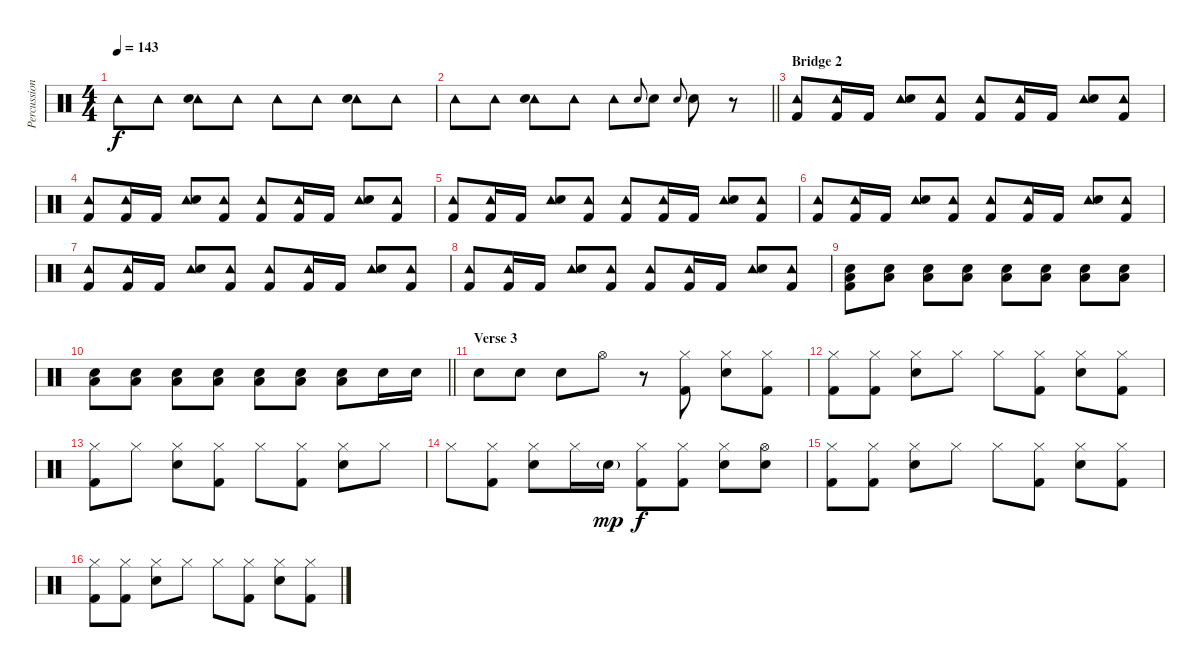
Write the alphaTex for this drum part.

\track ("Percussion" "Percussion") {instrument percussion}
\staff {score}
\articulation defaults
\ts (4 4)
\tempo 143
\clef neutral
\ks c "Tambourine (hit)".8{dy f} "Tambourine (hit)".8
("Tambourine (hit)" "Snare (hit) 2").8 "Tambourine (hit)".8 "Tambourine (hit)".8 "Tambourine (hit)".8 ("Tambourine (hit)" "Snare (hit) 2").8 "Tambourine (hit)".8 |
\barLineRight lightlight "Tambourine (hit)".8 "Tambourine (hit)".8
("Tambourine (hit)" "Snare (hit) 2").8 "Tambourine (hit)".8 "Tambourine (hit)".8 "Snare (hit) 2".8{gr onbeat} "Snare (hit) 2".8 "Snare (hit) 2".8{gr onbeat} "Snare (hit) 2".8 r.8 |
\section ("" "Bridge 2")
("Tambourine (hit)" "Kick (hit) 2").8 ("Tambourine (hit)" "Kick (hit) 2").16 "Kick (hit) 2".16 ("Tambourine (hit)" "Snare (hit) 2").8 ("Tambourine (hit)" "Kick (hit) 2").8 ("Tambourine (hit)" "Kick (hit) 2").8 ("Tambourine (hit)" "Kick (hit) 2").16 "Kick (hit) 2".16 ("Tambourine (hit)" "Snare (hit) 2").8 ("Tambourine (hit)" "Kick (hit) 2").8 |
("Tambourine (hit)" "Kick (hit) 2").8 ("Tambourine (hit)" "Kick (hit) 2").16 "Kick (hit) 2".16 ("Tambourine (hit)" "Snare (hit) 2").8 ("Tambourine (hit)" "Kick (hit) 2").8 ("Tambourine (hit)" "Kick (hit) 2").8 ("Tambourine (hit)" "Kick (hit) 2").16 "Kick (hit) 2".16 ("Tambourine (hit)" "Snare (hit) 2").8 ("Tambourine (hit)" "Kick (hit) 2").8 |
("Tambourine (hit)" "Kick (hit) 2").8 ("Tambourine (hit)" "Kick (hit) 2").16 "Kick (hit) 2".16 ("Tambourine (hit)" "Snare (hit) 2").8 ("Tambourine (hit)" "Kick (hit) 2").8 ("Tambourine (hit)" "Kick (hit) 2").8 ("Tambourine (hit)" "Kick (hit) 2").16 "Kick (hit) 2".16 ("Tambourine (hit)" "Snare (hit) 2").8 ("Tambourine (hit)" "Kick (hit) 2").8 |
("Tambourine (hit)" "Kick (hit) 2").8 ("Tambourine (hit)" "Kick (hit) 2").16 "Kick (hit) 2".16 ("Tambourine (hit)" "Snare (hit) 2").8 ("Tambourine (hit)" "Kick (hit) 2").8 ("Tambourine (hit)" "Kick (hit) 2").8 ("Tambourine (hit)" "Kick (hit) 2").16 "Kick (hit) 2".16 ("Tambourine (hit)" "Snare (hit) 2").8 ("Tambourine (hit)" "Kick (hit) 2").8 |
("Tambourine (hit)" "Kick (hit) 2").8 ("Tambourine (hit)" "Kick (hit) 2").16 "Kick (hit) 2".16 ("Tambourine (hit)" "Snare (hit) 2").8 ("Tambourine (hit)" "Kick (hit) 2").8 ("Tambourine (hit)" "Kick (hit) 2").8 ("Tambourine (hit)" "Kick (hit) 2").16 "Kick (hit) 2".16 ("Tambourine (hit)" "Snare (hit) 2").8 ("Tambourine (hit)" "Kick (hit) 2").8 |
("Tambourine (hit)" "Kick (hit) 2").8 ("Tambourine (hit)" "Kick (hit) 2").16 "Kick (hit) 2".16 ("Tambourine (hit)" "Snare (hit) 2").8 ("Tambourine (hit)" "Kick (hit) 2").8 ("Tambourine (hit)" "Kick (hit) 2").8 ("Tambourine (hit)" "Kick (hit) 2").16 "Kick (hit) 2".16 ("Tambourine (hit)" "Snare (hit) 2").8 ("Tambourine (hit)" "Kick (hit) 2").8 |
("Low Floor Tom (hit)" "Snare (hit) 2" "Kick (hit) 2").8 ("Low Floor Tom (hit)" "Snare (hit) 2").8 ("Low Floor Tom (hit)" "Snare (hit) 2").8 ("Low Floor Tom (hit)" "Snare (hit) 2").8 ("Low Floor Tom (hit)" "Snare (hit) 2").8 ("Low Floor Tom (hit)" "Snare (hit) 2").8 ("Low Floor Tom (hit)" "Snare (hit) 2").8 ("Low Floor Tom (hit)" "Snare (hit) 2").8 |
\barLineRight lightlight
("Low Floor Tom (hit)" "Snare (hit) 2").8 ("Low Floor Tom (hit)" "Snare (hit) 2").8 ("Low Floor Tom (hit)" "Snare (hit) 2").8 ("Low Floor Tom (hit)" "Snare (hit) 2").8 ("Low Floor Tom (hit)" "Snare (hit) 2").8 ("Low Floor Tom (hit)" "Snare (hit) 2").8 ("Low Floor Tom (hit)" "Snare (hit) 2").8 "Snare (hit) 2".16 "Snare (hit) 2".16 |
\section ("" "Verse 3")
"Snare (hit) 2".8 "Snare (hit) 2".8 "Snare (hit) 2".8 "Hi-Hat (open)".8 r.8 ("Hi-Hat (closed)" "Kick (hit) 2").8 ("Hi-Hat (closed)" "Snare (hit) 2").8 ("Hi-Hat (closed)" "Kick (hit) 2").8 |
("Hi-Hat (closed)" "Kick (hit) 2").8 ("Hi-Hat (closed)" "Kick (hit) 2").8 ("Hi-Hat (closed)" "Snare (hit) 2").8 "Hi-Hat (closed)".8 "Hi-Hat (closed)".8 ("Hi-Hat (closed)" "Kick (hit) 2").8 ("Hi-Hat (closed)" "Snare (hit) 2").8 ("Hi-Hat (closed)" "Kick (hit) 2").8 |
("Hi-Hat (closed)" "Kick (hit) 2").8 "Hi-Hat (closed)".8 ("Hi-Hat (closed)" "Snare (hit) 2").8 ("Hi-Hat (closed)" "Kick (hit) 2").8 "Hi-Hat (closed)".8 ("Hi-Hat (closed)" "Kick (hit) 2").8 ("Hi-Hat (closed)" "Snare (hit) 2").8 "Hi-Hat (closed)".8 |
"Hi-Hat (closed)".8 ("Hi-Hat (closed)" "Kick (hit) 2").8 ("Hi-Hat (closed)" "Snare (hit) 2").8 "Hi-Hat (closed)".16 "Snare (hit) 2"{g}.16{dy mp} ("Hi-Hat (closed)" "Kick (hit) 2").8{dy f} ("Hi-Hat (closed)" "Kick (hit) 2").8 ("Hi-Hat (closed)" "Snare (hit) 2").8 ("Hi-Hat (open)" "Snare (hit) 2").8 |
("Hi-Hat (closed)" "Kick (hit) 2").8 ("Hi-Hat (closed)" "Kick (hit) 2").8 ("Hi-Hat (closed)" "Snare (hit) 2").8 "Hi-Hat (closed)".8 "Hi-Hat (closed)".8 ("Hi-Hat (closed)" "Kick (hit) 2").8 ("Hi-Hat (closed)" "Snare (hit) 2").8 ("Hi-Hat (closed)" "Kick (hit) 2").8 |
("Hi-Hat (closed)" "Kick (hit) 2").8 ("Hi-Hat (closed)" "Kick (hit) 2").8 ("Hi-Hat (closed)" "Snare (hit) 2").8 "Hi-Hat (closed)".8 "Hi-Hat (closed)".8 ("Hi-Hat (closed)" "Kick (hit) 2").8 ("Hi-Hat (closed)" "Snare (hit) 2").8 ("Hi-Hat (closed)" "Kick (hit) 2").8
